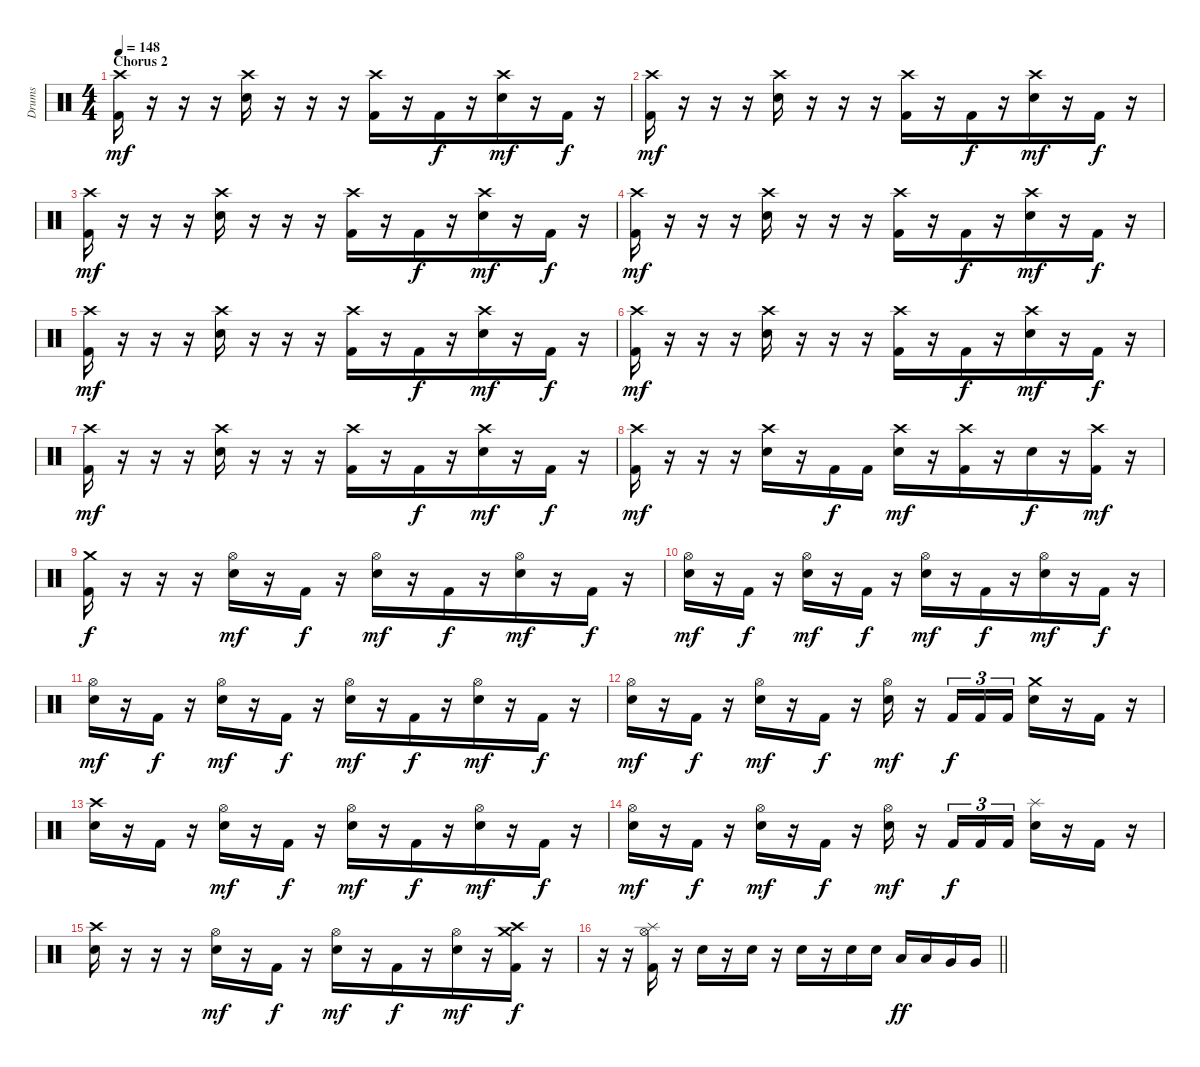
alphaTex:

\track ("Drums" "Drums") {instrument percussion}
\staff {score}
\articulation defaults
\ts (4 4)
\section ("" "Chorus 2")
\tempo 148
\clef neutral
\ks c
("Crash high (hit)" "Kick (hit) 2").16{dy mf volume 13} r.16 r.16 r.16 ("Crash high (hit)" "Snare (hit) 2").16 r.16{beam merge} r.16 r.16 ("Crash high (hit)" "Kick (hit) 2").16 r.16{beam merge} "Kick (hit) 2".16{dy f beam merge} r.16 ("Crash high (hit)" "Snare (hit) 2").16{dy mf beam merge} r.16 "Kick (hit) 2".16{dy f} r.16 |
("Crash high (hit)" "Kick (hit) 2").16{dy mf} r.16 r.16 r.16 ("Crash high (hit)" "Snare (hit) 2").16 r.16{beam merge} r.16 r.16 ("Crash high (hit)" "Kick (hit) 2").16 r.16{beam merge} "Kick (hit) 2".16{dy f beam merge} r.16 ("Crash high (hit)" "Snare (hit) 2").16{dy mf beam merge} r.16 "Kick (hit) 2".16{dy f} r.16 |
("Crash high (hit)" "Kick (hit) 2").16{dy mf} r.16 r.16 r.16 ("Crash high (hit)" "Snare (hit) 2").16 r.16{beam merge} r.16 r.16 ("Crash high (hit)" "Kick (hit) 2").16 r.16{beam merge} "Kick (hit) 2".16{dy f beam merge} r.16 ("Crash high (hit)" "Snare (hit) 2").16{dy mf beam merge} r.16 "Kick (hit) 2".16{dy f} r.16 |
("Crash high (hit)" "Kick (hit) 2").16{dy mf} r.16 r.16 r.16 ("Crash high (hit)" "Snare (hit) 2").16 r.16{beam merge} r.16 r.16 ("Crash high (hit)" "Kick (hit) 2").16 r.16{beam merge} "Kick (hit) 2".16{dy f beam merge} r.16 ("Crash high (hit)" "Snare (hit) 2").16{dy mf beam merge} r.16 "Kick (hit) 2".16{dy f} r.16 |
("Crash high (hit)" "Kick (hit) 2").16{dy mf} r.16 r.16 r.16 ("Crash high (hit)" "Snare (hit) 2").16 r.16{beam merge} r.16 r.16 ("Crash high (hit)" "Kick (hit) 2").16 r.16{beam merge} "Kick (hit) 2".16{dy f beam merge} r.16 ("Crash high (hit)" "Snare (hit) 2").16{dy mf beam merge} r.16 "Kick (hit) 2".16{dy f} r.16 |
("Crash high (hit)" "Kick (hit) 2").16{dy mf} r.16 r.16 r.16 ("Crash high (hit)" "Snare (hit) 2").16 r.16{beam merge} r.16 r.16 ("Crash high (hit)" "Kick (hit) 2").16 r.16{beam merge} "Kick (hit) 2".16{dy f beam merge} r.16 ("Crash high (hit)" "Snare (hit) 2").16{dy mf beam merge} r.16 "Kick (hit) 2".16{dy f} r.16 |
("Crash high (hit)" "Kick (hit) 2").16{dy mf} r.16 r.16 r.16 ("Crash high (hit)" "Snare (hit) 2").16 r.16{beam merge} r.16 r.16 ("Crash high (hit)" "Kick (hit) 2").16 r.16{beam merge} "Kick (hit) 2".16{dy f beam merge} r.16 ("Crash high (hit)" "Snare (hit) 2").16{dy mf beam merge} r.16 "Kick (hit) 2".16{dy f} r.16 |
("Crash high (hit)" "Kick (hit) 2").16{dy mf} r.16 r.16 r.16 ("Crash high (hit)" "Snare (hit) 2").16 r.16{beam merge} "Kick (hit) 2".16{dy f} "Kick (hit) 2".16 ("Crash high (hit)" "Snare (hit) 2").16{dy mf} r.16{beam merge} ("Crash high (hit)" "Kick (hit) 2").16{beam merge} r.16 "Snare (hit) 2".16{dy f beam merge} r.16 ("Crash high (hit)" "Kick (hit) 2").16{dy mf} r.16 |
("Crash medium (hit)" "Kick (hit) 2").16{dy f} r.16 r.16 r.16 ("Hi-Hat (open)" "Snare (hit) 2").16{dy mf} r.16{beam merge} "Kick (hit) 2".16{dy f} r.16 ("Hi-Hat (open)" "Snare (hit) 2").16{dy mf} r.16{beam merge} "Kick (hit) 2".16{dy f beam merge} r.16 ("Hi-Hat (open)" "Snare (hit) 2").16{dy mf beam merge} r.16 "Kick (hit) 2".16{dy f} r.16 |
("Hi-Hat (open)" "Snare (hit) 2").16{dy mf} r.16 "Kick (hit) 2".16{dy f} r.16 ("Hi-Hat (open)" "Snare (hit) 2").16{dy mf} r.16{beam merge} "Kick (hit) 2".16{dy f} r.16 ("Hi-Hat (open)" "Snare (hit) 2").16{dy mf} r.16{beam merge} "Kick (hit) 2".16{dy f beam merge} r.16 ("Hi-Hat (open)" "Snare (hit) 2").16{dy mf beam merge} r.16 "Kick (hit) 2".16{dy f} r.16 |
("Hi-Hat (open)" "Snare (hit) 2").16{dy mf} r.16 "Kick (hit) 2".16{dy f} r.16 ("Hi-Hat (open)" "Snare (hit) 2").16{dy mf} r.16{beam merge} "Kick (hit) 2".16{dy f} r.16 ("Hi-Hat (open)" "Snare (hit) 2").16{dy mf} r.16{beam merge} "Kick (hit) 2".16{dy f beam merge} r.16 ("Hi-Hat (open)" "Snare (hit) 2").16{dy mf beam merge} r.16 "Kick (hit) 2".16{dy f} r.16 |
("Hi-Hat (open)" "Snare (hit) 2").16{dy mf} r.16 "Kick (hit) 2".16{dy f} r.16 ("Hi-Hat (open)" "Snare (hit) 2").16{dy mf} r.16{beam merge} "Kick (hit) 2".16{dy f} r.16 ("Hi-Hat (open)" "Snare (hit) 2").16{dy mf} r.16 "Kick (hit) 2".16{tu (3 2) dy f beam merge} "Kick (hit) 2".16{tu (3 2) beam merge} "Kick (hit) 2".16{tu (3 2)} ("Crash medium (hit)" "Snare (hit) 2").16{beam merge} r.16 "Kick (hit) 2".16 r.16 |
("Crash high (hit)" "Snare (hit) 2").16 r.16 "Kick (hit) 2".16 r.16 ("Hi-Hat (open)" "Snare (hit) 2").16{dy mf} r.16{beam merge} "Kick (hit) 2".16{dy f} r.16 ("Hi-Hat (open)" "Snare (hit) 2").16{dy mf} r.16{beam merge} "Kick (hit) 2".16{dy f beam merge} r.16 ("Hi-Hat (open)" "Snare (hit) 2").16{dy mf beam merge} r.16 "Kick (hit) 2".16{dy f} r.16 |
("Hi-Hat (open)" "Snare (hit) 2").16{dy mf} r.16 "Kick (hit) 2".16{dy f} r.16 ("Hi-Hat (open)" "Snare (hit) 2").16{dy mf} r.16{beam merge} "Kick (hit) 2".16{dy f} r.16 ("Hi-Hat (open)" "Snare (hit) 2").16{dy mf} r.16 "Kick (hit) 2".16{tu (3 2) dy f beam merge} "Kick (hit) 2".16{tu (3 2) beam merge} "Kick (hit) 2".16{tu (3 2)} ("Splash (hit)" "Snare (hit) 2").16{beam merge} r.16 "Kick (hit) 2".16 r.16 |
("Crash high (hit)" "Snare (hit) 2").16 r.16 r.16 r.16 ("Hi-Hat (open)" "Snare (hit) 2").16{dy mf} r.16{beam merge} "Kick (hit) 2".16{dy f} r.16 ("Hi-Hat (open)" "Snare (hit) 2").16{dy mf} r.16{beam merge} "Kick (hit) 2".16{dy f beam merge} r.16 ("Hi-Hat (open)" "Snare (hit) 2").16{dy mf beam merge} r.16 ("Crash medium (hit)" "Crash high (hit)" "Kick (hit) 2").16{dy f} r.16 |
\barLineRight lightlight
r.16 r.16 ("Splash (hit)" "Hi-Hat (open)" "Kick (hit) 2").16 r.16 "Snare (hit) 2".16 r.16{beam merge} "Snare (hit) 2".16 r.16 "Snare (hit) 2".16 r.16 "Snare (hit) 2".16{beam merge} "Snare (hit) 2".16 "Low Tom (hit)".16{dy ff} "Low Tom (hit)".16 "Very Low Tom (hit)".16 "Very Low Tom (hit)".16
